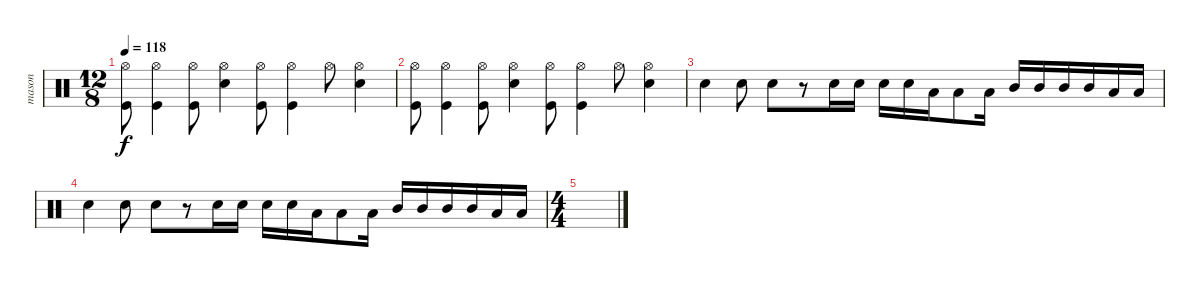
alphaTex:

\track ("mason" "mason") {instrument percussion}
\staff {score}
\articulation defaults
\ts (12 8)
\tempo 118
\clef neutral
\ks c
("Kick (hit)" "Hi-Hat (open)").8{dy f} ("Kick (hit)" "Hi-Hat (open)").4 ("Kick (hit)" "Hi-Hat (open)").8 ("Snare (hit) 2" "Hi-Hat (open)").4 ("Kick (hit)" "Hi-Hat (open)").8 ("Kick (hit)" "Hi-Hat (open)").4 "Hi-Hat (open)".8 ("Snare (hit) 2" "Hi-Hat (open)").4 |
("Kick (hit)" "Hi-Hat (open)").8 ("Kick (hit)" "Hi-Hat (open)").4 ("Kick (hit)" "Hi-Hat (open)").8 ("Snare (hit) 2" "Hi-Hat (open)").4 ("Kick (hit)" "Hi-Hat (open)").8 ("Kick (hit)" "Hi-Hat (open)").4 "Hi-Hat (open)".8 ("Snare (hit) 2" "Hi-Hat (open)").4 |
"Snare (hit) 2".4 "Snare (hit) 2".8 "Snare (hit) 2".8 r.8 "Snare (hit) 2".16 "Snare (hit) 2".16 "Snare (hit) 2".16 "Snare (hit) 2".16 "Low Tom (hit)".16 "Low Tom (hit)".8 "Low Tom (hit)".16 "Mid Tom (hit)".16 "Mid Tom (hit)".16 "Mid Tom (hit)".16 "Mid Tom (hit)".16 "Low Floor Tom (hit)".16 "Low Floor Tom (hit)".16 |
"Snare (hit) 2".4 "Snare (hit) 2".8 "Snare (hit) 2".8 r.8 "Snare (hit) 2".16 "Snare (hit) 2".16 "Snare (hit) 2".16 "Snare (hit) 2".16 "Low Tom (hit)".16 "Low Tom (hit)".8 "Low Tom (hit)".16 "Mid Tom (hit)".16 "Mid Tom (hit)".16 "Mid Tom (hit)".16 "Mid Tom (hit)".16 "Low Floor Tom (hit)".16 "Low Floor Tom (hit)".16 |
\ts (4 4)
